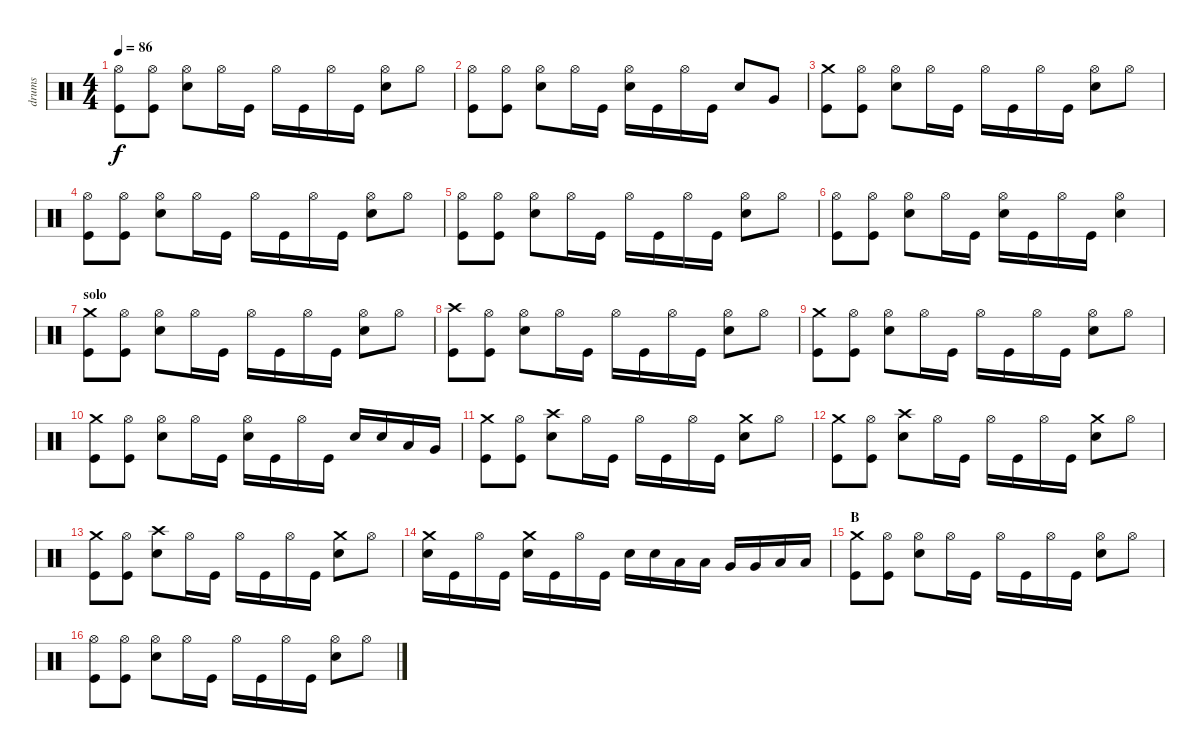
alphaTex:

\track ("drums" "drums") {instrument percussion}
\staff {score}
\articulation defaults
\ts (4 4)
\tempo 86
\clef neutral
\ks c
("Hi-Hat (open)" "Kick (hit)").8{dy f} ("Hi-Hat (open)" "Kick (hit)").8 ("Hi-Hat (open)" "Electric Snare (hit)").8 "Hi-Hat (open)".16 "Kick (hit)".16 "Hi-Hat (open)".16 "Kick (hit)".16 "Hi-Hat (open)".16 "Kick (hit)".16 ("Hi-Hat (open)" "Electric Snare (hit)").8 "Hi-Hat (open)".8 |
("Hi-Hat (open)" "Kick (hit)").8 ("Hi-Hat (open)" "Kick (hit)").8 ("Hi-Hat (open)" "Electric Snare (hit)").8 "Hi-Hat (open)".16 "Kick (hit)".16 ("Hi-Hat (open)" "Electric Snare (hit)").16 "Kick (hit)".16 "Hi-Hat (open)".16 "Kick (hit)".16 "Electric Snare (hit)".8 "Very Low Tom (hit)".8 |
("Crash medium (hit)" "Kick (hit)").8 ("Hi-Hat (open)" "Kick (hit)").8 ("Hi-Hat (open)" "Electric Snare (hit)").8 "Hi-Hat (open)".16 "Kick (hit)".16 "Hi-Hat (open)".16 "Kick (hit)".16 "Hi-Hat (open)".16 "Kick (hit)".16 ("Hi-Hat (open)" "Electric Snare (hit)").8 "Hi-Hat (open)".8 |
("Hi-Hat (open)" "Kick (hit)").8 ("Hi-Hat (open)" "Kick (hit)").8 ("Hi-Hat (open)" "Electric Snare (hit)").8 "Hi-Hat (open)".16 "Kick (hit)".16 "Hi-Hat (open)".16 "Kick (hit)".16 "Hi-Hat (open)".16 "Kick (hit)".16 ("Hi-Hat (open)" "Electric Snare (hit)").8 "Hi-Hat (open)".8 |
("Hi-Hat (open)" "Kick (hit)").8 ("Hi-Hat (open)" "Kick (hit)").8 ("Hi-Hat (open)" "Electric Snare (hit)").8 "Hi-Hat (open)".16 "Kick (hit)".16 "Hi-Hat (open)".16 "Kick (hit)".16 "Hi-Hat (open)".16 "Kick (hit)".16 ("Hi-Hat (open)" "Electric Snare (hit)").8 "Hi-Hat (open)".8 |
("Hi-Hat (open)" "Kick (hit)").8 ("Hi-Hat (open)" "Kick (hit)").8 ("Hi-Hat (open)" "Electric Snare (hit)").8 "Hi-Hat (open)".16 "Kick (hit)".16 ("Hi-Hat (open)" "Electric Snare (hit)").16 "Kick (hit)".16 "Hi-Hat (open)".16 "Kick (hit)".16 ("Hi-Hat (open)" "Electric Snare (hit)").4 |
\section ("" "solo")
("Crash medium (hit)" "Kick (hit)").8 ("Hi-Hat (open)" "Kick (hit)").8 ("Hi-Hat (open)" "Electric Snare (hit)").8 "Hi-Hat (open)".16 "Kick (hit)".16 "Hi-Hat (open)".16 "Kick (hit)".16 "Hi-Hat (open)".16 "Kick (hit)".16 ("Hi-Hat (open)" "Electric Snare (hit)").8 "Hi-Hat (open)".8 |
("Crash high (hit)" "Kick (hit)").8 ("Hi-Hat (open)" "Kick (hit)").8 ("Hi-Hat (open)" "Electric Snare (hit)").8 "Hi-Hat (open)".16 "Kick (hit)".16 "Hi-Hat (open)".16 "Kick (hit)".16 "Hi-Hat (open)".16 "Kick (hit)".16 ("Hi-Hat (open)" "Electric Snare (hit)").8 "Hi-Hat (open)".8 |
("Crash medium (hit)" "Kick (hit)").8 ("Hi-Hat (open)" "Kick (hit)").8 ("Hi-Hat (open)" "Electric Snare (hit)").8 "Hi-Hat (open)".16 "Kick (hit)".16 "Hi-Hat (open)".16 "Kick (hit)".16 "Hi-Hat (open)".16 "Kick (hit)".16 ("Hi-Hat (open)" "Electric Snare (hit)").8 "Hi-Hat (open)".8 |
("Crash medium (hit)" "Kick (hit)").8 ("Hi-Hat (open)" "Kick (hit)").8 ("Hi-Hat (open)" "Electric Snare (hit)").8 "Hi-Hat (open)".16 "Kick (hit)".16 ("Hi-Hat (open)" "Electric Snare (hit)").16 "Kick (hit)".16 "Hi-Hat (open)".16 "Kick (hit)".16 "Electric Snare (hit)".16 "Electric Snare (hit)".16 "Low Tom (hit)".16 "Very Low Tom (hit)".16 |
("Crash medium (hit)" "Kick (hit)").8 ("Hi-Hat (open)" "Kick (hit)").8 ("Crash high (hit)" "Electric Snare (hit)").8 "Hi-Hat (open)".16 "Kick (hit)".16 "Hi-Hat (open)".16 "Kick (hit)".16 "Hi-Hat (open)".16 "Kick (hit)".16 ("Crash medium (hit)" "Electric Snare (hit)").8 "Hi-Hat (open)".8 |
("Crash medium (hit)" "Kick (hit)").8 ("Hi-Hat (open)" "Kick (hit)").8 ("Crash high (hit)" "Electric Snare (hit)").8 "Hi-Hat (open)".16 "Kick (hit)".16 "Hi-Hat (open)".16 "Kick (hit)".16 "Hi-Hat (open)".16 "Kick (hit)".16 ("Crash medium (hit)" "Electric Snare (hit)").8 "Hi-Hat (open)".8 |
("Crash medium (hit)" "Kick (hit)").8 ("Hi-Hat (open)" "Kick (hit)").8 ("Crash high (hit)" "Electric Snare (hit)").8 "Hi-Hat (open)".16 "Kick (hit)".16 "Hi-Hat (open)".16 "Kick (hit)".16 "Hi-Hat (open)".16 "Kick (hit)".16 ("Crash medium (hit)" "Electric Snare (hit)").8 "Hi-Hat (open)".8 |
("Crash medium (hit)" "Electric Snare (hit)").16 "Kick (hit)".16 "Hi-Hat (open)".16 "Kick (hit)".16 ("Crash medium (hit)" "Electric Snare (hit)").16 "Kick (hit)".16 "Hi-Hat (open)".16 "Kick (hit)".16 "Electric Snare (hit)".16 "Electric Snare (hit)".16 "Low Tom (hit)".16 "Low Tom (hit)".16 "Very Low Tom (hit)".16 "Very Low Tom (hit)".16 "Low Floor Tom (hit)".16 "Low Floor Tom (hit)".16 |
\section ("" "B")
("Crash medium (hit)" "Kick (hit)").8 ("Hi-Hat (open)" "Kick (hit)").8 ("Hi-Hat (open)" "Electric Snare (hit)").8 "Hi-Hat (open)".16 "Kick (hit)".16 "Hi-Hat (open)".16 "Kick (hit)".16 "Hi-Hat (open)".16 "Kick (hit)".16 ("Hi-Hat (open)" "Electric Snare (hit)").8 "Hi-Hat (open)".8 |
("Hi-Hat (open)" "Kick (hit)").8 ("Hi-Hat (open)" "Kick (hit)").8 ("Hi-Hat (open)" "Electric Snare (hit)").8 "Hi-Hat (open)".16 "Kick (hit)".16 "Hi-Hat (open)".16 "Kick (hit)".16 "Hi-Hat (open)".16 "Kick (hit)".16 ("Hi-Hat (open)" "Electric Snare (hit)").8 "Hi-Hat (open)".8
